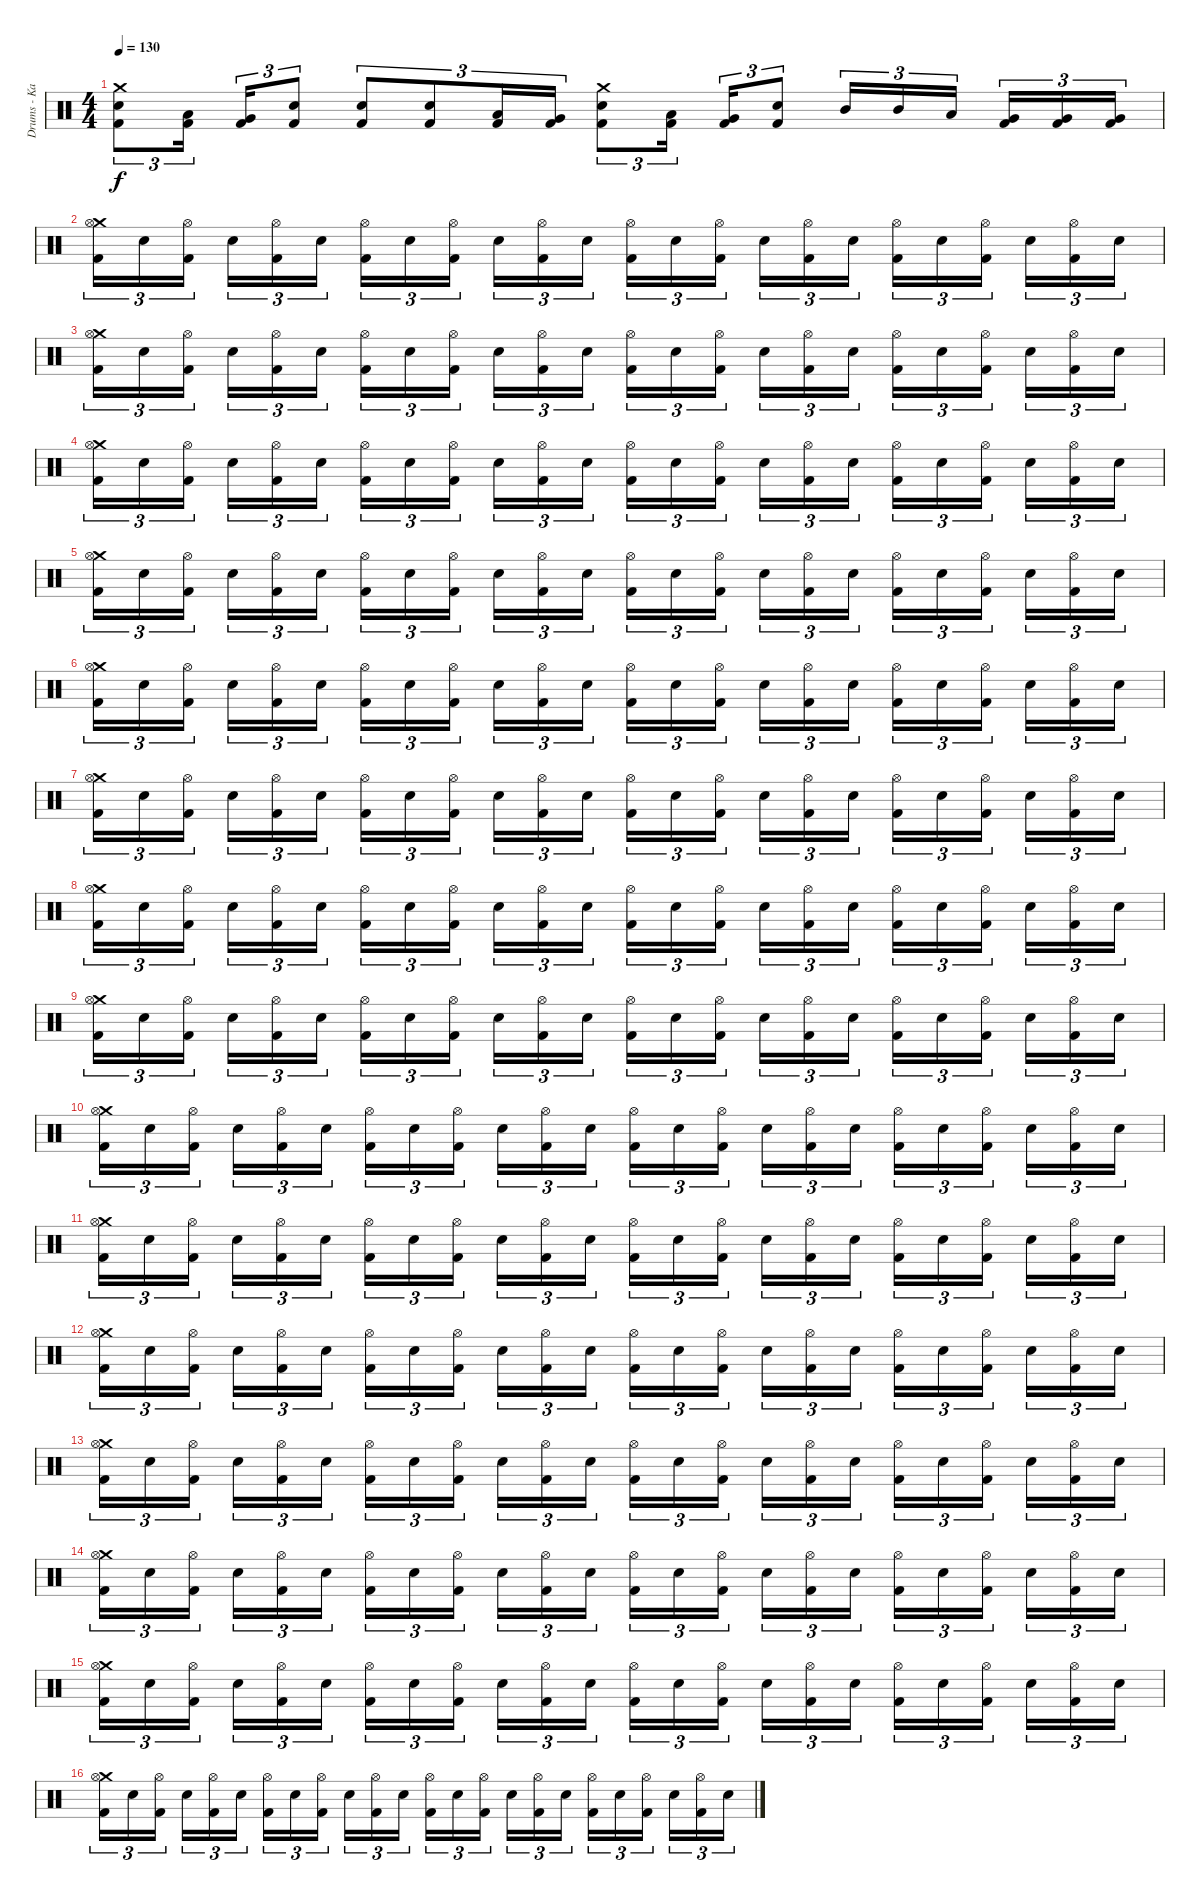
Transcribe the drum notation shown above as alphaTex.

\track ("Drums - Kai Hahto " "Drums - Ka") {instrument percussion}
\staff {score}
\articulation defaults
\ts (4 4)
\tempo 130
\clef neutral
\ks c
("Crash medium (hit)" "Snare (hit) 2" "Kick (hit) 2").8{tu (3 2) dy f} ("Low Tom (hit)" "Kick (hit) 2").16{tu (3 2) beam splitsecondary} ("Very Low Tom (hit)" "Kick (hit) 2").16{tu (3 2)} ("Snare (hit) 2" "Kick (hit) 2").8{tu (3 2)} ("Snare (hit) 2" "Kick (hit) 2").8{tu (3 2)} ("Snare (hit) 2" "Kick (hit) 2").8{tu (3 2)} ("Low Tom (hit)" "Kick (hit) 2").16{tu (3 2)} ("Very Low Tom (hit)" "Kick (hit) 2").16{tu (3 2)} ("Crash medium (hit)" "Snare (hit) 2" "Kick (hit) 2").8{tu (3 2)} ("Low Tom (hit)" "Kick (hit) 2").16{tu (3 2) beam splitsecondary} ("Very Low Tom (hit)" "Kick (hit) 2").16{tu (3 2)} ("Snare (hit) 2" "Kick (hit) 2").8{tu (3 2)} "Mid Tom (hit)".16{tu (3 2)} "Mid Tom (hit)".16{tu (3 2)} "Low Tom (hit)".16{tu (3 2) beam splitsecondary} ("Very Low Tom (hit)" "Kick (hit) 2").16{tu (3 2)} ("Very Low Tom (hit)" "Kick (hit) 2").16{tu (3 2)} ("Very Low Tom (hit)" "Kick (hit) 2").16{tu (3 2)} |
("Crash medium (hit)" "Hi-Hat (open)" "Kick (hit) 2").16{tu (3 2)} "Snare (hit) 2".16{tu (3 2)} ("Hi-Hat (open)" "Kick (hit) 2").16{tu (3 2) beam splitsecondary} "Snare (hit) 2".16{tu (3 2)} ("Hi-Hat (open)" "Kick (hit) 2").16{tu (3 2)} "Snare (hit) 2".16{tu (3 2)} ("Hi-Hat (open)" "Kick (hit) 2").16{tu (3 2)} "Snare (hit) 2".16{tu (3 2)} ("Hi-Hat (open)" "Kick (hit) 2").16{tu (3 2) beam splitsecondary} "Snare (hit) 2".16{tu (3 2)} ("Hi-Hat (open)" "Kick (hit) 2").16{tu (3 2)} "Snare (hit) 2".16{tu (3 2)} ("Hi-Hat (open)" "Kick (hit) 2").16{tu (3 2)} "Snare (hit) 2".16{tu (3 2)} ("Hi-Hat (open)" "Kick (hit) 2").16{tu (3 2) beam splitsecondary} "Snare (hit) 2".16{tu (3 2)} ("Hi-Hat (open)" "Kick (hit) 2").16{tu (3 2)} "Snare (hit) 2".16{tu (3 2)} ("Hi-Hat (open)" "Kick (hit) 2").16{tu (3 2)} "Snare (hit) 2".16{tu (3 2)} ("Hi-Hat (open)" "Kick (hit) 2").16{tu (3 2) beam splitsecondary} "Snare (hit) 2".16{tu (3 2)} ("Hi-Hat (open)" "Kick (hit) 2").16{tu (3 2)} "Snare (hit) 2".16{tu (3 2)} |
("Crash medium (hit)" "Hi-Hat (open)" "Kick (hit) 2").16{tu (3 2)} "Snare (hit) 2".16{tu (3 2)} ("Hi-Hat (open)" "Kick (hit) 2").16{tu (3 2) beam splitsecondary} "Snare (hit) 2".16{tu (3 2)} ("Hi-Hat (open)" "Kick (hit) 2").16{tu (3 2)} "Snare (hit) 2".16{tu (3 2)} ("Hi-Hat (open)" "Kick (hit) 2").16{tu (3 2)} "Snare (hit) 2".16{tu (3 2)} ("Hi-Hat (open)" "Kick (hit) 2").16{tu (3 2) beam splitsecondary} "Snare (hit) 2".16{tu (3 2)} ("Hi-Hat (open)" "Kick (hit) 2").16{tu (3 2)} "Snare (hit) 2".16{tu (3 2)} ("Hi-Hat (open)" "Kick (hit) 2").16{tu (3 2)} "Snare (hit) 2".16{tu (3 2)} ("Hi-Hat (open)" "Kick (hit) 2").16{tu (3 2) beam splitsecondary} "Snare (hit) 2".16{tu (3 2)} ("Hi-Hat (open)" "Kick (hit) 2").16{tu (3 2)} "Snare (hit) 2".16{tu (3 2)} ("Hi-Hat (open)" "Kick (hit) 2").16{tu (3 2)} "Snare (hit) 2".16{tu (3 2)} ("Hi-Hat (open)" "Kick (hit) 2").16{tu (3 2) beam splitsecondary} "Snare (hit) 2".16{tu (3 2)} ("Hi-Hat (open)" "Kick (hit) 2").16{tu (3 2)} "Snare (hit) 2".16{tu (3 2)} |
("Crash medium (hit)" "Hi-Hat (open)" "Kick (hit) 2").16{tu (3 2)} "Snare (hit) 2".16{tu (3 2)} ("Hi-Hat (open)" "Kick (hit) 2").16{tu (3 2) beam splitsecondary} "Snare (hit) 2".16{tu (3 2)} ("Hi-Hat (open)" "Kick (hit) 2").16{tu (3 2)} "Snare (hit) 2".16{tu (3 2)} ("Hi-Hat (open)" "Kick (hit) 2").16{tu (3 2)} "Snare (hit) 2".16{tu (3 2)} ("Hi-Hat (open)" "Kick (hit) 2").16{tu (3 2) beam splitsecondary} "Snare (hit) 2".16{tu (3 2)} ("Hi-Hat (open)" "Kick (hit) 2").16{tu (3 2)} "Snare (hit) 2".16{tu (3 2)} ("Hi-Hat (open)" "Kick (hit) 2").16{tu (3 2)} "Snare (hit) 2".16{tu (3 2)} ("Hi-Hat (open)" "Kick (hit) 2").16{tu (3 2) beam splitsecondary} "Snare (hit) 2".16{tu (3 2)} ("Hi-Hat (open)" "Kick (hit) 2").16{tu (3 2)} "Snare (hit) 2".16{tu (3 2)} ("Hi-Hat (open)" "Kick (hit) 2").16{tu (3 2)} "Snare (hit) 2".16{tu (3 2)} ("Hi-Hat (open)" "Kick (hit) 2").16{tu (3 2) beam splitsecondary} "Snare (hit) 2".16{tu (3 2)} ("Hi-Hat (open)" "Kick (hit) 2").16{tu (3 2)} "Snare (hit) 2".16{tu (3 2)} |
("Crash medium (hit)" "Hi-Hat (open)" "Kick (hit) 2").16{tu (3 2)} "Snare (hit) 2".16{tu (3 2)} ("Hi-Hat (open)" "Kick (hit) 2").16{tu (3 2) beam splitsecondary} "Snare (hit) 2".16{tu (3 2)} ("Hi-Hat (open)" "Kick (hit) 2").16{tu (3 2)} "Snare (hit) 2".16{tu (3 2)} ("Hi-Hat (open)" "Kick (hit) 2").16{tu (3 2)} "Snare (hit) 2".16{tu (3 2)} ("Hi-Hat (open)" "Kick (hit) 2").16{tu (3 2) beam splitsecondary} "Snare (hit) 2".16{tu (3 2)} ("Hi-Hat (open)" "Kick (hit) 2").16{tu (3 2)} "Snare (hit) 2".16{tu (3 2)} ("Hi-Hat (open)" "Kick (hit) 2").16{tu (3 2)} "Snare (hit) 2".16{tu (3 2)} ("Hi-Hat (open)" "Kick (hit) 2").16{tu (3 2) beam splitsecondary} "Snare (hit) 2".16{tu (3 2)} ("Hi-Hat (open)" "Kick (hit) 2").16{tu (3 2)} "Snare (hit) 2".16{tu (3 2)} ("Hi-Hat (open)" "Kick (hit) 2").16{tu (3 2)} "Snare (hit) 2".16{tu (3 2)} ("Hi-Hat (open)" "Kick (hit) 2").16{tu (3 2) beam splitsecondary} "Snare (hit) 2".16{tu (3 2)} ("Hi-Hat (open)" "Kick (hit) 2").16{tu (3 2)} "Snare (hit) 2".16{tu (3 2)} |
("Crash medium (hit)" "Hi-Hat (open)" "Kick (hit) 2").16{tu (3 2)} "Snare (hit) 2".16{tu (3 2)} ("Hi-Hat (open)" "Kick (hit) 2").16{tu (3 2) beam splitsecondary} "Snare (hit) 2".16{tu (3 2)} ("Hi-Hat (open)" "Kick (hit) 2").16{tu (3 2)} "Snare (hit) 2".16{tu (3 2)} ("Hi-Hat (open)" "Kick (hit) 2").16{tu (3 2)} "Snare (hit) 2".16{tu (3 2)} ("Hi-Hat (open)" "Kick (hit) 2").16{tu (3 2) beam splitsecondary} "Snare (hit) 2".16{tu (3 2)} ("Hi-Hat (open)" "Kick (hit) 2").16{tu (3 2)} "Snare (hit) 2".16{tu (3 2)} ("Hi-Hat (open)" "Kick (hit) 2").16{tu (3 2)} "Snare (hit) 2".16{tu (3 2)} ("Hi-Hat (open)" "Kick (hit) 2").16{tu (3 2) beam splitsecondary} "Snare (hit) 2".16{tu (3 2)} ("Hi-Hat (open)" "Kick (hit) 2").16{tu (3 2)} "Snare (hit) 2".16{tu (3 2)} ("Hi-Hat (open)" "Kick (hit) 2").16{tu (3 2)} "Snare (hit) 2".16{tu (3 2)} ("Hi-Hat (open)" "Kick (hit) 2").16{tu (3 2) beam splitsecondary} "Snare (hit) 2".16{tu (3 2)} ("Hi-Hat (open)" "Kick (hit) 2").16{tu (3 2)} "Snare (hit) 2".16{tu (3 2)} |
("Crash medium (hit)" "Hi-Hat (open)" "Kick (hit) 2").16{tu (3 2)} "Snare (hit) 2".16{tu (3 2)} ("Hi-Hat (open)" "Kick (hit) 2").16{tu (3 2) beam splitsecondary} "Snare (hit) 2".16{tu (3 2)} ("Hi-Hat (open)" "Kick (hit) 2").16{tu (3 2)} "Snare (hit) 2".16{tu (3 2)} ("Hi-Hat (open)" "Kick (hit) 2").16{tu (3 2)} "Snare (hit) 2".16{tu (3 2)} ("Hi-Hat (open)" "Kick (hit) 2").16{tu (3 2) beam splitsecondary} "Snare (hit) 2".16{tu (3 2)} ("Hi-Hat (open)" "Kick (hit) 2").16{tu (3 2)} "Snare (hit) 2".16{tu (3 2)} ("Hi-Hat (open)" "Kick (hit) 2").16{tu (3 2)} "Snare (hit) 2".16{tu (3 2)} ("Hi-Hat (open)" "Kick (hit) 2").16{tu (3 2) beam splitsecondary} "Snare (hit) 2".16{tu (3 2)} ("Hi-Hat (open)" "Kick (hit) 2").16{tu (3 2)} "Snare (hit) 2".16{tu (3 2)} ("Hi-Hat (open)" "Kick (hit) 2").16{tu (3 2)} "Snare (hit) 2".16{tu (3 2)} ("Hi-Hat (open)" "Kick (hit) 2").16{tu (3 2) beam splitsecondary} "Snare (hit) 2".16{tu (3 2)} ("Hi-Hat (open)" "Kick (hit) 2").16{tu (3 2)} "Snare (hit) 2".16{tu (3 2)} |
("Crash medium (hit)" "Hi-Hat (open)" "Kick (hit) 2").16{tu (3 2)} "Snare (hit) 2".16{tu (3 2)} ("Hi-Hat (open)" "Kick (hit) 2").16{tu (3 2) beam splitsecondary} "Snare (hit) 2".16{tu (3 2)} ("Hi-Hat (open)" "Kick (hit) 2").16{tu (3 2)} "Snare (hit) 2".16{tu (3 2)} ("Hi-Hat (open)" "Kick (hit) 2").16{tu (3 2)} "Snare (hit) 2".16{tu (3 2)} ("Hi-Hat (open)" "Kick (hit) 2").16{tu (3 2) beam splitsecondary} "Snare (hit) 2".16{tu (3 2)} ("Hi-Hat (open)" "Kick (hit) 2").16{tu (3 2)} "Snare (hit) 2".16{tu (3 2)} ("Hi-Hat (open)" "Kick (hit) 2").16{tu (3 2)} "Snare (hit) 2".16{tu (3 2)} ("Hi-Hat (open)" "Kick (hit) 2").16{tu (3 2) beam splitsecondary} "Snare (hit) 2".16{tu (3 2)} ("Hi-Hat (open)" "Kick (hit) 2").16{tu (3 2)} "Snare (hit) 2".16{tu (3 2)} ("Hi-Hat (open)" "Kick (hit) 2").16{tu (3 2)} "Snare (hit) 2".16{tu (3 2)} ("Hi-Hat (open)" "Kick (hit) 2").16{tu (3 2) beam splitsecondary} "Snare (hit) 2".16{tu (3 2)} ("Hi-Hat (open)" "Kick (hit) 2").16{tu (3 2)} "Snare (hit) 2".16{tu (3 2)} |
("Crash medium (hit)" "Hi-Hat (open)" "Kick (hit) 2").16{tu (3 2)} "Snare (hit) 2".16{tu (3 2)} ("Hi-Hat (open)" "Kick (hit) 2").16{tu (3 2) beam splitsecondary} "Snare (hit) 2".16{tu (3 2)} ("Hi-Hat (open)" "Kick (hit) 2").16{tu (3 2)} "Snare (hit) 2".16{tu (3 2)} ("Hi-Hat (open)" "Kick (hit) 2").16{tu (3 2)} "Snare (hit) 2".16{tu (3 2)} ("Hi-Hat (open)" "Kick (hit) 2").16{tu (3 2) beam splitsecondary} "Snare (hit) 2".16{tu (3 2)} ("Hi-Hat (open)" "Kick (hit) 2").16{tu (3 2)} "Snare (hit) 2".16{tu (3 2)} ("Hi-Hat (open)" "Kick (hit) 2").16{tu (3 2)} "Snare (hit) 2".16{tu (3 2)} ("Hi-Hat (open)" "Kick (hit) 2").16{tu (3 2) beam splitsecondary} "Snare (hit) 2".16{tu (3 2)} ("Hi-Hat (open)" "Kick (hit) 2").16{tu (3 2)} "Snare (hit) 2".16{tu (3 2)} ("Hi-Hat (open)" "Kick (hit) 2").16{tu (3 2)} "Snare (hit) 2".16{tu (3 2)} ("Hi-Hat (open)" "Kick (hit) 2").16{tu (3 2) beam splitsecondary} "Snare (hit) 2".16{tu (3 2)} ("Hi-Hat (open)" "Kick (hit) 2").16{tu (3 2)} "Snare (hit) 2".16{tu (3 2)} |
("Crash medium (hit)" "Hi-Hat (open)" "Kick (hit) 2").16{tu (3 2)} "Snare (hit) 2".16{tu (3 2)} ("Hi-Hat (open)" "Kick (hit) 2").16{tu (3 2) beam splitsecondary} "Snare (hit) 2".16{tu (3 2)} ("Hi-Hat (open)" "Kick (hit) 2").16{tu (3 2)} "Snare (hit) 2".16{tu (3 2)} ("Hi-Hat (open)" "Kick (hit) 2").16{tu (3 2)} "Snare (hit) 2".16{tu (3 2)} ("Hi-Hat (open)" "Kick (hit) 2").16{tu (3 2) beam splitsecondary} "Snare (hit) 2".16{tu (3 2)} ("Hi-Hat (open)" "Kick (hit) 2").16{tu (3 2)} "Snare (hit) 2".16{tu (3 2)} ("Hi-Hat (open)" "Kick (hit) 2").16{tu (3 2)} "Snare (hit) 2".16{tu (3 2)} ("Hi-Hat (open)" "Kick (hit) 2").16{tu (3 2) beam splitsecondary} "Snare (hit) 2".16{tu (3 2)} ("Hi-Hat (open)" "Kick (hit) 2").16{tu (3 2)} "Snare (hit) 2".16{tu (3 2)} ("Hi-Hat (open)" "Kick (hit) 2").16{tu (3 2)} "Snare (hit) 2".16{tu (3 2)} ("Hi-Hat (open)" "Kick (hit) 2").16{tu (3 2) beam splitsecondary} "Snare (hit) 2".16{tu (3 2)} ("Hi-Hat (open)" "Kick (hit) 2").16{tu (3 2)} "Snare (hit) 2".16{tu (3 2)} |
("Crash medium (hit)" "Hi-Hat (open)" "Kick (hit) 2").16{tu (3 2)} "Snare (hit) 2".16{tu (3 2)} ("Hi-Hat (open)" "Kick (hit) 2").16{tu (3 2) beam splitsecondary} "Snare (hit) 2".16{tu (3 2)} ("Hi-Hat (open)" "Kick (hit) 2").16{tu (3 2)} "Snare (hit) 2".16{tu (3 2)} ("Hi-Hat (open)" "Kick (hit) 2").16{tu (3 2)} "Snare (hit) 2".16{tu (3 2)} ("Hi-Hat (open)" "Kick (hit) 2").16{tu (3 2) beam splitsecondary} "Snare (hit) 2".16{tu (3 2)} ("Hi-Hat (open)" "Kick (hit) 2").16{tu (3 2)} "Snare (hit) 2".16{tu (3 2)} ("Hi-Hat (open)" "Kick (hit) 2").16{tu (3 2)} "Snare (hit) 2".16{tu (3 2)} ("Hi-Hat (open)" "Kick (hit) 2").16{tu (3 2) beam splitsecondary} "Snare (hit) 2".16{tu (3 2)} ("Hi-Hat (open)" "Kick (hit) 2").16{tu (3 2)} "Snare (hit) 2".16{tu (3 2)} ("Hi-Hat (open)" "Kick (hit) 2").16{tu (3 2)} "Snare (hit) 2".16{tu (3 2)} ("Hi-Hat (open)" "Kick (hit) 2").16{tu (3 2) beam splitsecondary} "Snare (hit) 2".16{tu (3 2)} ("Hi-Hat (open)" "Kick (hit) 2").16{tu (3 2)} "Snare (hit) 2".16{tu (3 2)} |
("Crash medium (hit)" "Hi-Hat (open)" "Kick (hit) 2").16{tu (3 2)} "Snare (hit) 2".16{tu (3 2)} ("Hi-Hat (open)" "Kick (hit) 2").16{tu (3 2) beam splitsecondary} "Snare (hit) 2".16{tu (3 2)} ("Hi-Hat (open)" "Kick (hit) 2").16{tu (3 2)} "Snare (hit) 2".16{tu (3 2)} ("Hi-Hat (open)" "Kick (hit) 2").16{tu (3 2)} "Snare (hit) 2".16{tu (3 2)} ("Hi-Hat (open)" "Kick (hit) 2").16{tu (3 2) beam splitsecondary} "Snare (hit) 2".16{tu (3 2)} ("Hi-Hat (open)" "Kick (hit) 2").16{tu (3 2)} "Snare (hit) 2".16{tu (3 2)} ("Hi-Hat (open)" "Kick (hit) 2").16{tu (3 2)} "Snare (hit) 2".16{tu (3 2)} ("Hi-Hat (open)" "Kick (hit) 2").16{tu (3 2) beam splitsecondary} "Snare (hit) 2".16{tu (3 2)} ("Hi-Hat (open)" "Kick (hit) 2").16{tu (3 2)} "Snare (hit) 2".16{tu (3 2)} ("Hi-Hat (open)" "Kick (hit) 2").16{tu (3 2)} "Snare (hit) 2".16{tu (3 2)} ("Hi-Hat (open)" "Kick (hit) 2").16{tu (3 2) beam splitsecondary} "Snare (hit) 2".16{tu (3 2)} ("Hi-Hat (open)" "Kick (hit) 2").16{tu (3 2)} "Snare (hit) 2".16{tu (3 2)} |
("Crash medium (hit)" "Hi-Hat (open)" "Kick (hit) 2").16{tu (3 2)} "Snare (hit) 2".16{tu (3 2)} ("Hi-Hat (open)" "Kick (hit) 2").16{tu (3 2) beam splitsecondary} "Snare (hit) 2".16{tu (3 2)} ("Hi-Hat (open)" "Kick (hit) 2").16{tu (3 2)} "Snare (hit) 2".16{tu (3 2)} ("Hi-Hat (open)" "Kick (hit) 2").16{tu (3 2)} "Snare (hit) 2".16{tu (3 2)} ("Hi-Hat (open)" "Kick (hit) 2").16{tu (3 2) beam splitsecondary} "Snare (hit) 2".16{tu (3 2)} ("Hi-Hat (open)" "Kick (hit) 2").16{tu (3 2)} "Snare (hit) 2".16{tu (3 2)} ("Hi-Hat (open)" "Kick (hit) 2").16{tu (3 2)} "Snare (hit) 2".16{tu (3 2)} ("Hi-Hat (open)" "Kick (hit) 2").16{tu (3 2) beam splitsecondary} "Snare (hit) 2".16{tu (3 2)} ("Hi-Hat (open)" "Kick (hit) 2").16{tu (3 2)} "Snare (hit) 2".16{tu (3 2)} ("Hi-Hat (open)" "Kick (hit) 2").16{tu (3 2)} "Snare (hit) 2".16{tu (3 2)} ("Hi-Hat (open)" "Kick (hit) 2").16{tu (3 2) beam splitsecondary} "Snare (hit) 2".16{tu (3 2)} ("Hi-Hat (open)" "Kick (hit) 2").16{tu (3 2)} "Snare (hit) 2".16{tu (3 2)} |
("Crash medium (hit)" "Hi-Hat (open)" "Kick (hit) 2").16{tu (3 2)} "Snare (hit) 2".16{tu (3 2)} ("Hi-Hat (open)" "Kick (hit) 2").16{tu (3 2) beam splitsecondary} "Snare (hit) 2".16{tu (3 2)} ("Hi-Hat (open)" "Kick (hit) 2").16{tu (3 2)} "Snare (hit) 2".16{tu (3 2)} ("Hi-Hat (open)" "Kick (hit) 2").16{tu (3 2)} "Snare (hit) 2".16{tu (3 2)} ("Hi-Hat (open)" "Kick (hit) 2").16{tu (3 2) beam splitsecondary} "Snare (hit) 2".16{tu (3 2)} ("Hi-Hat (open)" "Kick (hit) 2").16{tu (3 2)} "Snare (hit) 2".16{tu (3 2)} ("Hi-Hat (open)" "Kick (hit) 2").16{tu (3 2)} "Snare (hit) 2".16{tu (3 2)} ("Hi-Hat (open)" "Kick (hit) 2").16{tu (3 2) beam splitsecondary} "Snare (hit) 2".16{tu (3 2)} ("Hi-Hat (open)" "Kick (hit) 2").16{tu (3 2)} "Snare (hit) 2".16{tu (3 2)} ("Hi-Hat (open)" "Kick (hit) 2").16{tu (3 2)} "Snare (hit) 2".16{tu (3 2)} ("Hi-Hat (open)" "Kick (hit) 2").16{tu (3 2) beam splitsecondary} "Snare (hit) 2".16{tu (3 2)} ("Hi-Hat (open)" "Kick (hit) 2").16{tu (3 2)} "Snare (hit) 2".16{tu (3 2)} |
("Crash medium (hit)" "Hi-Hat (open)" "Kick (hit) 2").16{tu (3 2)} "Snare (hit) 2".16{tu (3 2)} ("Hi-Hat (open)" "Kick (hit) 2").16{tu (3 2) beam splitsecondary} "Snare (hit) 2".16{tu (3 2)} ("Hi-Hat (open)" "Kick (hit) 2").16{tu (3 2)} "Snare (hit) 2".16{tu (3 2)} ("Hi-Hat (open)" "Kick (hit) 2").16{tu (3 2)} "Snare (hit) 2".16{tu (3 2)} ("Hi-Hat (open)" "Kick (hit) 2").16{tu (3 2) beam splitsecondary} "Snare (hit) 2".16{tu (3 2)} ("Hi-Hat (open)" "Kick (hit) 2").16{tu (3 2)} "Snare (hit) 2".16{tu (3 2)} ("Hi-Hat (open)" "Kick (hit) 2").16{tu (3 2)} "Snare (hit) 2".16{tu (3 2)} ("Hi-Hat (open)" "Kick (hit) 2").16{tu (3 2) beam splitsecondary} "Snare (hit) 2".16{tu (3 2)} ("Hi-Hat (open)" "Kick (hit) 2").16{tu (3 2)} "Snare (hit) 2".16{tu (3 2)} ("Hi-Hat (open)" "Kick (hit) 2").16{tu (3 2)} "Snare (hit) 2".16{tu (3 2)} ("Hi-Hat (open)" "Kick (hit) 2").16{tu (3 2) beam splitsecondary} "Snare (hit) 2".16{tu (3 2)} ("Hi-Hat (open)" "Kick (hit) 2").16{tu (3 2)} "Snare (hit) 2".16{tu (3 2)} |
("Crash medium (hit)" "Hi-Hat (open)" "Kick (hit) 2").16{tu (3 2)} "Snare (hit) 2".16{tu (3 2)} ("Hi-Hat (open)" "Kick (hit) 2").16{tu (3 2) beam splitsecondary} "Snare (hit) 2".16{tu (3 2)} ("Hi-Hat (open)" "Kick (hit) 2").16{tu (3 2)} "Snare (hit) 2".16{tu (3 2)} ("Hi-Hat (open)" "Kick (hit) 2").16{tu (3 2)} "Snare (hit) 2".16{tu (3 2)} ("Hi-Hat (open)" "Kick (hit) 2").16{tu (3 2) beam splitsecondary} "Snare (hit) 2".16{tu (3 2)} ("Hi-Hat (open)" "Kick (hit) 2").16{tu (3 2)} "Snare (hit) 2".16{tu (3 2)} ("Hi-Hat (open)" "Kick (hit) 2").16{tu (3 2)} "Snare (hit) 2".16{tu (3 2)} ("Hi-Hat (open)" "Kick (hit) 2").16{tu (3 2) beam splitsecondary} "Snare (hit) 2".16{tu (3 2)} ("Hi-Hat (open)" "Kick (hit) 2").16{tu (3 2)} "Snare (hit) 2".16{tu (3 2)} ("Hi-Hat (open)" "Kick (hit) 2").16{tu (3 2)} "Snare (hit) 2".16{tu (3 2)} ("Hi-Hat (open)" "Kick (hit) 2").16{tu (3 2) beam splitsecondary} "Snare (hit) 2".16{tu (3 2)} ("Hi-Hat (open)" "Kick (hit) 2").16{tu (3 2)} "Snare (hit) 2".16{tu (3 2)}
